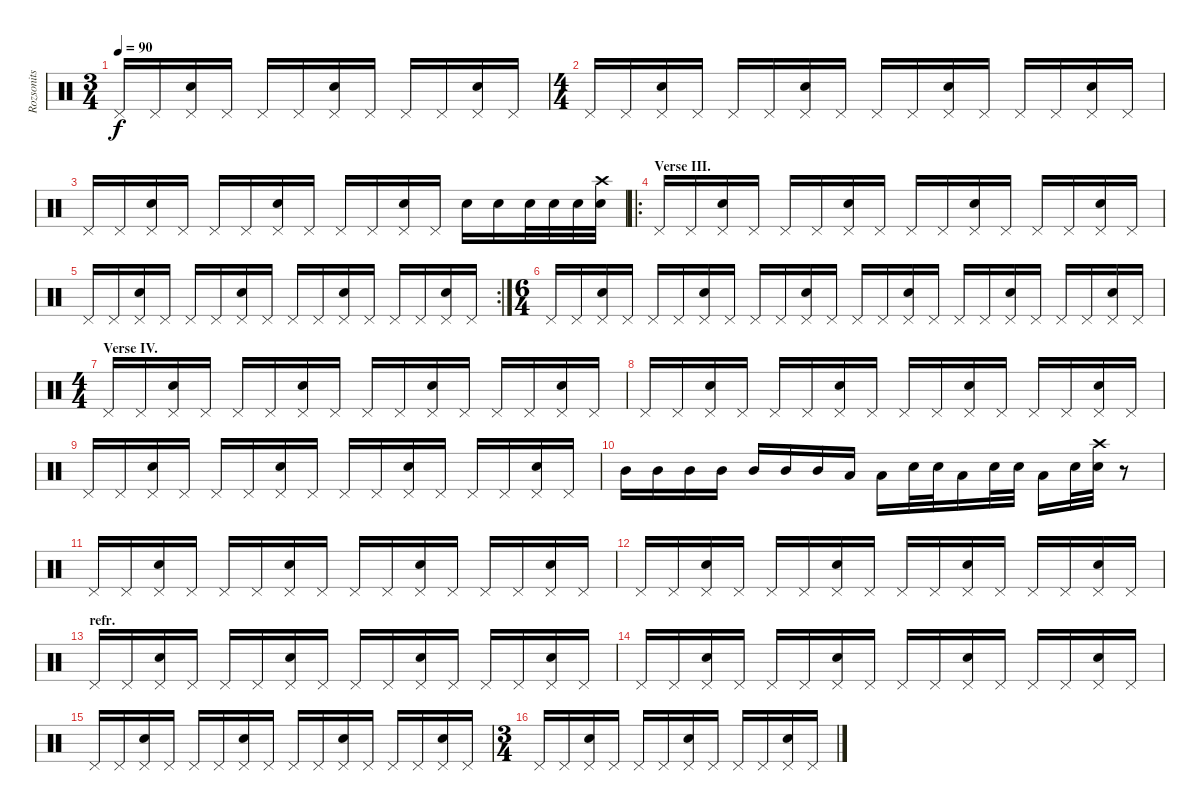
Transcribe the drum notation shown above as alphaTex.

\track ("Rozsonits T. dobok" "Rozsonits ") {instrument percussion}
\staff {score}
\articulation defaults
\ts (3 4)
\tempo 90
\clef neutral
\ks c "Pedal Hi-Hat (hit)".16{dy f} "Pedal Hi-Hat (hit)".16
("Pedal Hi-Hat (hit)" "Snare (hit) 2").16 "Pedal Hi-Hat (hit)".16 "Pedal Hi-Hat (hit)".16 "Pedal Hi-Hat (hit)".16 ("Pedal Hi-Hat (hit)" "Snare (hit) 2").16 "Pedal Hi-Hat (hit)".16 "Pedal Hi-Hat (hit)".16 "Pedal Hi-Hat (hit)".16 ("Pedal Hi-Hat (hit)" "Snare (hit) 2").16 "Pedal Hi-Hat (hit)".16 |
\ts (4 4)
"Pedal Hi-Hat (hit)".16 "Pedal Hi-Hat (hit)".16 ("Pedal Hi-Hat (hit)" "Snare (hit) 2").16 "Pedal Hi-Hat (hit)".16 "Pedal Hi-Hat (hit)".16 "Pedal Hi-Hat (hit)".16 ("Pedal Hi-Hat (hit)" "Snare (hit) 2").16 "Pedal Hi-Hat (hit)".16 "Pedal Hi-Hat (hit)".16 "Pedal Hi-Hat (hit)".16 ("Pedal Hi-Hat (hit)" "Snare (hit) 2").16 "Pedal Hi-Hat (hit)".16 "Pedal Hi-Hat (hit)".16 "Pedal Hi-Hat (hit)".16 ("Pedal Hi-Hat (hit)" "Snare (hit) 2").16 "Pedal Hi-Hat (hit)".16 |
"Pedal Hi-Hat (hit)".16 "Pedal Hi-Hat (hit)".16 ("Pedal Hi-Hat (hit)" "Snare (hit) 2").16 "Pedal Hi-Hat (hit)".16 "Pedal Hi-Hat (hit)".16 "Pedal Hi-Hat (hit)".16 ("Pedal Hi-Hat (hit)" "Snare (hit) 2").16 "Pedal Hi-Hat (hit)".16 "Pedal Hi-Hat (hit)".16 "Pedal Hi-Hat (hit)".16 ("Pedal Hi-Hat (hit)" "Snare (hit) 2").16 "Pedal Hi-Hat (hit)".16 "Snare (hit) 2".16 "Snare (hit) 2".16 "Snare (hit) 2".32 "Snare (hit) 2".32 "Snare (hit) 2".32 ("Crash high (hit)" "Snare (hit) 2").32 |
\ro
\section ("" "Verse III.")
"Pedal Hi-Hat (hit)".16 "Pedal Hi-Hat (hit)".16 ("Pedal Hi-Hat (hit)" "Snare (hit) 2").16 "Pedal Hi-Hat (hit)".16 "Pedal Hi-Hat (hit)".16 "Pedal Hi-Hat (hit)".16 ("Pedal Hi-Hat (hit)" "Snare (hit) 2").16 "Pedal Hi-Hat (hit)".16 "Pedal Hi-Hat (hit)".16 "Pedal Hi-Hat (hit)".16 ("Pedal Hi-Hat (hit)" "Snare (hit) 2").16 "Pedal Hi-Hat (hit)".16 "Pedal Hi-Hat (hit)".16 "Pedal Hi-Hat (hit)".16 ("Pedal Hi-Hat (hit)" "Snare (hit) 2").16 "Pedal Hi-Hat (hit)".16 |
\rc 2 "Pedal Hi-Hat (hit)".16 "Pedal Hi-Hat (hit)".16
("Pedal Hi-Hat (hit)" "Snare (hit) 2").16 "Pedal Hi-Hat (hit)".16 "Pedal Hi-Hat (hit)".16 "Pedal Hi-Hat (hit)".16 ("Pedal Hi-Hat (hit)" "Snare (hit) 2").16 "Pedal Hi-Hat (hit)".16 "Pedal Hi-Hat (hit)".16 "Pedal Hi-Hat (hit)".16 ("Pedal Hi-Hat (hit)" "Snare (hit) 2").16 "Pedal Hi-Hat (hit)".16 "Pedal Hi-Hat (hit)".16 "Pedal Hi-Hat (hit)".16 ("Pedal Hi-Hat (hit)" "Snare (hit) 2").16 "Pedal Hi-Hat (hit)".16 |
\ts (6 4)
"Pedal Hi-Hat (hit)".16 "Pedal Hi-Hat (hit)".16 ("Pedal Hi-Hat (hit)" "Snare (hit) 2").16 "Pedal Hi-Hat (hit)".16 "Pedal Hi-Hat (hit)".16 "Pedal Hi-Hat (hit)".16 ("Pedal Hi-Hat (hit)" "Snare (hit) 2").16 "Pedal Hi-Hat (hit)".16 "Pedal Hi-Hat (hit)".16 "Pedal Hi-Hat (hit)".16 ("Pedal Hi-Hat (hit)" "Snare (hit) 2").16 "Pedal Hi-Hat (hit)".16 "Pedal Hi-Hat (hit)".16 "Pedal Hi-Hat (hit)".16 ("Pedal Hi-Hat (hit)" "Snare (hit) 2").16 "Pedal Hi-Hat (hit)".16 "Pedal Hi-Hat (hit)".16 "Pedal Hi-Hat (hit)".16 ("Pedal Hi-Hat (hit)" "Snare (hit) 2").16 "Pedal Hi-Hat (hit)".16 "Pedal Hi-Hat (hit)".16 "Pedal Hi-Hat (hit)".16 ("Pedal Hi-Hat (hit)" "Snare (hit) 2").16 "Pedal Hi-Hat (hit)".16 |
\ts (4 4)
\section ("" "Verse IV.")
"Pedal Hi-Hat (hit)".16 "Pedal Hi-Hat (hit)".16 ("Pedal Hi-Hat (hit)" "Snare (hit) 2").16 "Pedal Hi-Hat (hit)".16 "Pedal Hi-Hat (hit)".16 "Pedal Hi-Hat (hit)".16 ("Pedal Hi-Hat (hit)" "Snare (hit) 2").16 "Pedal Hi-Hat (hit)".16 "Pedal Hi-Hat (hit)".16 "Pedal Hi-Hat (hit)".16 ("Pedal Hi-Hat (hit)" "Snare (hit) 2").16 "Pedal Hi-Hat (hit)".16 "Pedal Hi-Hat (hit)".16 "Pedal Hi-Hat (hit)".16 ("Pedal Hi-Hat (hit)" "Snare (hit) 2").16 "Pedal Hi-Hat (hit)".16 |
"Pedal Hi-Hat (hit)".16 "Pedal Hi-Hat (hit)".16 ("Pedal Hi-Hat (hit)" "Snare (hit) 2").16 "Pedal Hi-Hat (hit)".16 "Pedal Hi-Hat (hit)".16 "Pedal Hi-Hat (hit)".16 ("Pedal Hi-Hat (hit)" "Snare (hit) 2").16 "Pedal Hi-Hat (hit)".16 "Pedal Hi-Hat (hit)".16 "Pedal Hi-Hat (hit)".16 ("Pedal Hi-Hat (hit)" "Snare (hit) 2").16 "Pedal Hi-Hat (hit)".16 "Pedal Hi-Hat (hit)".16 "Pedal Hi-Hat (hit)".16 ("Pedal Hi-Hat (hit)" "Snare (hit) 2").16 "Pedal Hi-Hat (hit)".16 |
"Pedal Hi-Hat (hit)".16 "Pedal Hi-Hat (hit)".16 ("Pedal Hi-Hat (hit)" "Snare (hit) 2").16 "Pedal Hi-Hat (hit)".16 "Pedal Hi-Hat (hit)".16 "Pedal Hi-Hat (hit)".16 ("Pedal Hi-Hat (hit)" "Snare (hit) 2").16 "Pedal Hi-Hat (hit)".16 "Pedal Hi-Hat (hit)".16 "Pedal Hi-Hat (hit)".16 ("Pedal Hi-Hat (hit)" "Snare (hit) 2").16 "Pedal Hi-Hat (hit)".16 "Pedal Hi-Hat (hit)".16 "Pedal Hi-Hat (hit)".16 ("Pedal Hi-Hat (hit)" "Snare (hit) 2").16 "Pedal Hi-Hat (hit)".16 |
"Mid Tom (hit)".16 "Mid Tom (hit)".16 "Mid Tom (hit)".16 "Mid Tom (hit)".16 "Mid Tom (hit)".16 "Mid Tom (hit)".16 "Mid Tom (hit)".16 "Low Tom (hit)".16 "Low Tom (hit)".16 "Snare (hit) 2".32 "Snare (hit) 2".32 "Low Tom (hit)".16 "Snare (hit) 2".32 "Snare (hit) 2".32 "Low Tom (hit)".16 "Snare (hit) 2".32 ("Crash high (hit)" "Snare (hit) 2").32 r.8 |
"Pedal Hi-Hat (hit)".16 "Pedal Hi-Hat (hit)".16 ("Pedal Hi-Hat (hit)" "Snare (hit) 2").16 "Pedal Hi-Hat (hit)".16 "Pedal Hi-Hat (hit)".16 "Pedal Hi-Hat (hit)".16 ("Pedal Hi-Hat (hit)" "Snare (hit) 2").16 "Pedal Hi-Hat (hit)".16 "Pedal Hi-Hat (hit)".16 "Pedal Hi-Hat (hit)".16 ("Pedal Hi-Hat (hit)" "Snare (hit) 2").16 "Pedal Hi-Hat (hit)".16 "Pedal Hi-Hat (hit)".16 "Pedal Hi-Hat (hit)".16 ("Pedal Hi-Hat (hit)" "Snare (hit) 2").16 "Pedal Hi-Hat (hit)".16 |
"Pedal Hi-Hat (hit)".16 "Pedal Hi-Hat (hit)".16 ("Pedal Hi-Hat (hit)" "Snare (hit) 2").16 "Pedal Hi-Hat (hit)".16 "Pedal Hi-Hat (hit)".16 "Pedal Hi-Hat (hit)".16 ("Pedal Hi-Hat (hit)" "Snare (hit) 2").16 "Pedal Hi-Hat (hit)".16 "Pedal Hi-Hat (hit)".16 "Pedal Hi-Hat (hit)".16 ("Pedal Hi-Hat (hit)" "Snare (hit) 2").16 "Pedal Hi-Hat (hit)".16 "Pedal Hi-Hat (hit)".16 "Pedal Hi-Hat (hit)".16 ("Pedal Hi-Hat (hit)" "Snare (hit) 2").16 "Pedal Hi-Hat (hit)".16 |
\section ("" "refr.")
"Pedal Hi-Hat (hit)".16 "Pedal Hi-Hat (hit)".16 ("Pedal Hi-Hat (hit)" "Snare (hit) 2").16 "Pedal Hi-Hat (hit)".16 "Pedal Hi-Hat (hit)".16 "Pedal Hi-Hat (hit)".16 ("Pedal Hi-Hat (hit)" "Snare (hit) 2").16 "Pedal Hi-Hat (hit)".16 "Pedal Hi-Hat (hit)".16 "Pedal Hi-Hat (hit)".16 ("Pedal Hi-Hat (hit)" "Snare (hit) 2").16 "Pedal Hi-Hat (hit)".16 "Pedal Hi-Hat (hit)".16 "Pedal Hi-Hat (hit)".16 ("Pedal Hi-Hat (hit)" "Snare (hit) 2").16 "Pedal Hi-Hat (hit)".16 |
"Pedal Hi-Hat (hit)".16 "Pedal Hi-Hat (hit)".16 ("Pedal Hi-Hat (hit)" "Snare (hit) 2").16 "Pedal Hi-Hat (hit)".16 "Pedal Hi-Hat (hit)".16 "Pedal Hi-Hat (hit)".16 ("Pedal Hi-Hat (hit)" "Snare (hit) 2").16 "Pedal Hi-Hat (hit)".16 "Pedal Hi-Hat (hit)".16 "Pedal Hi-Hat (hit)".16 ("Pedal Hi-Hat (hit)" "Snare (hit) 2").16 "Pedal Hi-Hat (hit)".16 "Pedal Hi-Hat (hit)".16 "Pedal Hi-Hat (hit)".16 ("Pedal Hi-Hat (hit)" "Snare (hit) 2").16 "Pedal Hi-Hat (hit)".16 |
"Pedal Hi-Hat (hit)".16 "Pedal Hi-Hat (hit)".16 ("Pedal Hi-Hat (hit)" "Snare (hit) 2").16 "Pedal Hi-Hat (hit)".16 "Pedal Hi-Hat (hit)".16 "Pedal Hi-Hat (hit)".16 ("Pedal Hi-Hat (hit)" "Snare (hit) 2").16 "Pedal Hi-Hat (hit)".16 "Pedal Hi-Hat (hit)".16 "Pedal Hi-Hat (hit)".16 ("Pedal Hi-Hat (hit)" "Snare (hit) 2").16 "Pedal Hi-Hat (hit)".16 "Pedal Hi-Hat (hit)".16 "Pedal Hi-Hat (hit)".16 ("Pedal Hi-Hat (hit)" "Snare (hit) 2").16 "Pedal Hi-Hat (hit)".16 |
\ts (3 4)
"Pedal Hi-Hat (hit)".16 "Pedal Hi-Hat (hit)".16 ("Pedal Hi-Hat (hit)" "Snare (hit) 2").16 "Pedal Hi-Hat (hit)".16 "Pedal Hi-Hat (hit)".16 "Pedal Hi-Hat (hit)".16 ("Pedal Hi-Hat (hit)" "Snare (hit) 2").16 "Pedal Hi-Hat (hit)".16 "Pedal Hi-Hat (hit)".16 "Pedal Hi-Hat (hit)".16 ("Pedal Hi-Hat (hit)" "Snare (hit) 2").16 "Pedal Hi-Hat (hit)".16
